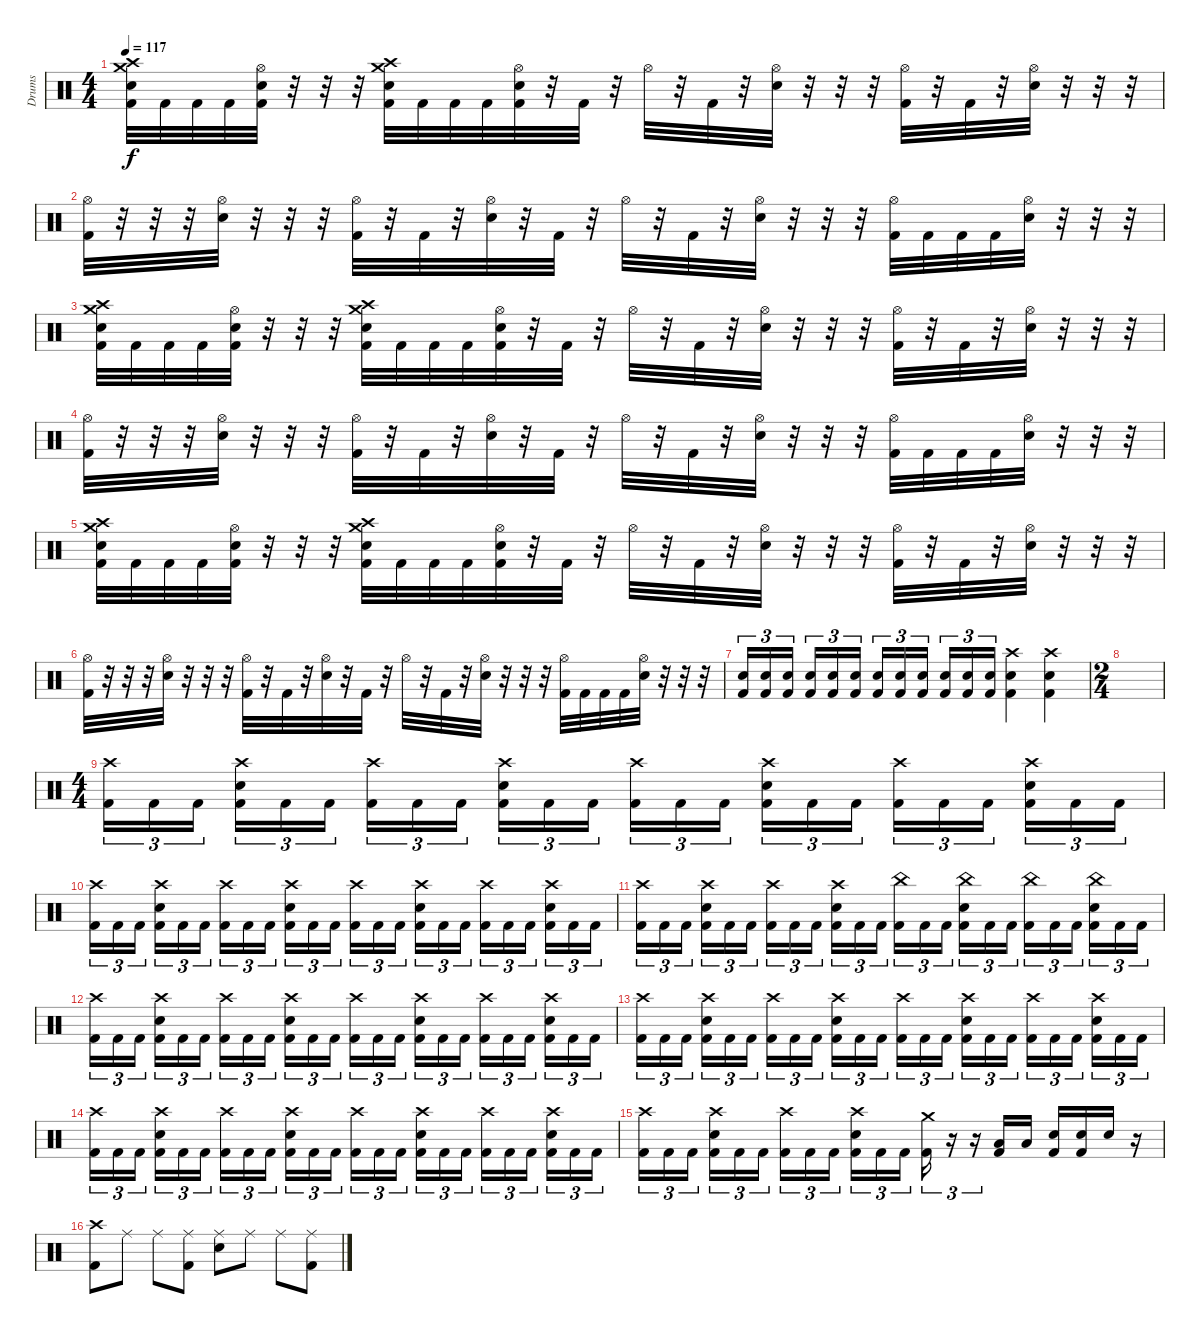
\track ("Drums" "Drums") {instrument percussion}
\staff {score}
\articulation defaults
\ts (4 4)
\tempo 117
\clef neutral
\ks c
("Crash medium (hit)" "Crash high (hit)" "Electric Snare (hit)" "Kick (hit) 2").32{dy f} "Kick (hit) 2".32 "Kick (hit) 2".32 "Kick (hit) 2".32 ("Hi-Hat (open)" "Electric Snare (hit)" "Kick (hit) 2").32 r.32 r.32 r.32 ("Crash medium (hit)" "Crash high (hit)" "Electric Snare (hit)" "Kick (hit) 2").32 "Kick (hit) 2".32 "Kick (hit) 2".32 "Kick (hit) 2".32 ("Hi-Hat (open)" "Electric Snare (hit)" "Kick (hit) 2").32 r.32 "Kick (hit) 2".32 r.32 "Hi-Hat (open)".32 r.32 "Kick (hit) 2".32 r.32 ("Hi-Hat (open)" "Electric Snare (hit)").32 r.32 r.32 r.32 ("Hi-Hat (open)" "Kick (hit) 2").32 r.32 "Kick (hit) 2".32 r.32 ("Hi-Hat (open)" "Electric Snare (hit)").32 r.32 r.32 r.32 |
("Hi-Hat (open)" "Kick (hit) 2").32 r.32 r.32 r.32 ("Hi-Hat (open)" "Electric Snare (hit)").32 r.32 r.32 r.32 ("Hi-Hat (open)" "Kick (hit) 2").32 r.32 "Kick (hit) 2".32 r.32 ("Hi-Hat (open)" "Electric Snare (hit)").32 r.32 "Kick (hit) 2".32 r.32 "Hi-Hat (open)".32 r.32 "Kick (hit) 2".32 r.32 ("Hi-Hat (open)" "Electric Snare (hit)").32 r.32 r.32 r.32 ("Hi-Hat (open)" "Kick (hit) 2").32 "Kick (hit) 2".32 "Kick (hit) 2".32 "Kick (hit) 2".32 ("Hi-Hat (open)" "Electric Snare (hit)").32 r.32 r.32 r.32 |
("Crash medium (hit)" "Crash high (hit)" "Electric Snare (hit)" "Kick (hit) 2").32 "Kick (hit) 2".32 "Kick (hit) 2".32 "Kick (hit) 2".32 ("Hi-Hat (open)" "Electric Snare (hit)" "Kick (hit) 2").32 r.32 r.32 r.32 ("Crash medium (hit)" "Crash high (hit)" "Electric Snare (hit)" "Kick (hit) 2").32 "Kick (hit) 2".32 "Kick (hit) 2".32 "Kick (hit) 2".32 ("Hi-Hat (open)" "Electric Snare (hit)" "Kick (hit) 2").32 r.32 "Kick (hit) 2".32 r.32 "Hi-Hat (open)".32 r.32 "Kick (hit) 2".32 r.32 ("Hi-Hat (open)" "Electric Snare (hit)").32 r.32 r.32 r.32 ("Hi-Hat (open)" "Kick (hit) 2").32 r.32 "Kick (hit) 2".32 r.32 ("Hi-Hat (open)" "Electric Snare (hit)").32 r.32 r.32 r.32 |
("Hi-Hat (open)" "Kick (hit) 2").32 r.32 r.32 r.32 ("Hi-Hat (open)" "Electric Snare (hit)").32 r.32 r.32 r.32 ("Hi-Hat (open)" "Kick (hit) 2").32 r.32 "Kick (hit) 2".32 r.32 ("Hi-Hat (open)" "Electric Snare (hit)").32 r.32 "Kick (hit) 2".32 r.32 "Hi-Hat (open)".32 r.32 "Kick (hit) 2".32 r.32 ("Hi-Hat (open)" "Electric Snare (hit)").32 r.32 r.32 r.32 ("Hi-Hat (open)" "Kick (hit) 2").32 "Kick (hit) 2".32 "Kick (hit) 2".32 "Kick (hit) 2".32 ("Hi-Hat (open)" "Electric Snare (hit)").32 r.32 r.32 r.32 |
("Crash medium (hit)" "Crash high (hit)" "Electric Snare (hit)" "Kick (hit) 2").32 "Kick (hit) 2".32 "Kick (hit) 2".32 "Kick (hit) 2".32 ("Hi-Hat (open)" "Electric Snare (hit)" "Kick (hit) 2").32 r.32 r.32 r.32 ("Crash medium (hit)" "Crash high (hit)" "Electric Snare (hit)" "Kick (hit) 2").32 "Kick (hit) 2".32 "Kick (hit) 2".32 "Kick (hit) 2".32 ("Hi-Hat (open)" "Electric Snare (hit)" "Kick (hit) 2").32 r.32 "Kick (hit) 2".32 r.32 "Hi-Hat (open)".32 r.32 "Kick (hit) 2".32 r.32 ("Hi-Hat (open)" "Electric Snare (hit)").32 r.32 r.32 r.32 ("Hi-Hat (open)" "Kick (hit) 2").32 r.32 "Kick (hit) 2".32 r.32 ("Hi-Hat (open)" "Electric Snare (hit)").32 r.32 r.32 r.32 |
("Hi-Hat (open)" "Kick (hit) 2").32 r.32 r.32 r.32 ("Hi-Hat (open)" "Electric Snare (hit)").32 r.32 r.32 r.32 ("Hi-Hat (open)" "Kick (hit) 2").32 r.32 "Kick (hit) 2".32 r.32 ("Hi-Hat (open)" "Electric Snare (hit)").32 r.32 "Kick (hit) 2".32 r.32 "Hi-Hat (open)".32 r.32 "Kick (hit) 2".32 r.32 ("Hi-Hat (open)" "Electric Snare (hit)").32 r.32 r.32 r.32 ("Hi-Hat (open)" "Kick (hit) 2").32 "Kick (hit) 2".32 "Kick (hit) 2".32 "Kick (hit) 2".32 ("Hi-Hat (open)" "Electric Snare (hit)").32 r.32 r.32 r.32 |
("Electric Snare (hit)" "Kick (hit) 2").16{tu (3 2)} ("Electric Snare (hit)" "Kick (hit) 2").16{tu (3 2)} ("Electric Snare (hit)" "Kick (hit) 2").16{tu (3 2) beam splitsecondary} ("Electric Snare (hit)" "Kick (hit) 2").16{tu (3 2)} ("Electric Snare (hit)" "Kick (hit) 2").16{tu (3 2)} ("Electric Snare (hit)" "Kick (hit) 2").16{tu (3 2)} ("Electric Snare (hit)" "Kick (hit) 2").16{tu (3 2)} ("Electric Snare (hit)" "Kick (hit) 2").16{tu (3 2)} ("Electric Snare (hit)" "Kick (hit) 2").16{tu (3 2) beam splitsecondary} ("Electric Snare (hit)" "Kick (hit) 2").16{tu (3 2)} ("Electric Snare (hit)" "Kick (hit) 2").16{tu (3 2)} ("Electric Snare (hit)" "Kick (hit) 2").16{tu (3 2)} ("Crash high (hit)" "Electric Snare (hit)" "Kick (hit) 2").4 ("Crash high (hit)" "Electric Snare (hit)" "Kick (hit) 2").4 |
\ts (2 4)
|
\ts (4 4)
("Crash high (hit)" "Kick (hit) 2").16{tu (3 2)} "Kick (hit) 2".16{tu (3 2)} "Kick (hit) 2".16{tu (3 2) beam splitsecondary} ("Crash high (hit)" "Electric Snare (hit)" "Kick (hit) 2").16{tu (3 2)} "Kick (hit) 2".16{tu (3 2)} "Kick (hit) 2".16{tu (3 2)} ("Crash high (hit)" "Kick (hit) 2").16{tu (3 2)} "Kick (hit) 2".16{tu (3 2)} "Kick (hit) 2".16{tu (3 2) beam splitsecondary} ("Crash high (hit)" "Electric Snare (hit)" "Kick (hit) 2").16{tu (3 2)} "Kick (hit) 2".16{tu (3 2)} "Kick (hit) 2".16{tu (3 2)} ("Crash high (hit)" "Kick (hit) 2").16{tu (3 2)} "Kick (hit) 2".16{tu (3 2)} "Kick (hit) 2".16{tu (3 2) beam splitsecondary} ("Crash high (hit)" "Electric Snare (hit)" "Kick (hit) 2").16{tu (3 2)} "Kick (hit) 2".16{tu (3 2)} "Kick (hit) 2".16{tu (3 2)} ("Crash high (hit)" "Kick (hit) 2").16{tu (3 2)} "Kick (hit) 2".16{tu (3 2)} "Kick (hit) 2".16{tu (3 2) beam splitsecondary} ("Crash high (hit)" "Electric Snare (hit)" "Kick (hit) 2").16{tu (3 2)} "Kick (hit) 2".16{tu (3 2)} "Kick (hit) 2".16{tu (3 2)} |
("Crash high (hit)" "Kick (hit) 2").16{tu (3 2)} "Kick (hit) 2".16{tu (3 2)} "Kick (hit) 2".16{tu (3 2) beam splitsecondary} ("Crash high (hit)" "Electric Snare (hit)" "Kick (hit) 2").16{tu (3 2)} "Kick (hit) 2".16{tu (3 2)} "Kick (hit) 2".16{tu (3 2)} ("Crash high (hit)" "Kick (hit) 2").16{tu (3 2)} "Kick (hit) 2".16{tu (3 2)} "Kick (hit) 2".16{tu (3 2) beam splitsecondary} ("Crash high (hit)" "Electric Snare (hit)" "Kick (hit) 2").16{tu (3 2)} "Kick (hit) 2".16{tu (3 2)} "Kick (hit) 2".16{tu (3 2)} ("Crash high (hit)" "Kick (hit) 2").16{tu (3 2)} "Kick (hit) 2".16{tu (3 2)} "Kick (hit) 2".16{tu (3 2) beam splitsecondary} ("Crash high (hit)" "Electric Snare (hit)" "Kick (hit) 2").16{tu (3 2)} "Kick (hit) 2".16{tu (3 2)} "Kick (hit) 2".16{tu (3 2)} ("Crash high (hit)" "Kick (hit) 2").16{tu (3 2)} "Kick (hit) 2".16{tu (3 2)} "Kick (hit) 2".16{tu (3 2) beam splitsecondary} ("Crash high (hit)" "Electric Snare (hit)" "Kick (hit) 2").16{tu (3 2)} "Kick (hit) 2".16{tu (3 2)} "Kick (hit) 2".16{tu (3 2)} |
("Crash high (hit)" "Kick (hit) 2").16{tu (3 2)} "Kick (hit) 2".16{tu (3 2)} "Kick (hit) 2".16{tu (3 2) beam splitsecondary} ("Crash high (hit)" "Electric Snare (hit)" "Kick (hit) 2").16{tu (3 2)} "Kick (hit) 2".16{tu (3 2)} "Kick (hit) 2".16{tu (3 2)} ("Crash high (hit)" "Kick (hit) 2").16{tu (3 2)} "Kick (hit) 2".16{tu (3 2)} "Kick (hit) 2".16{tu (3 2) beam splitsecondary} ("Crash high (hit)" "Electric Snare (hit)" "Kick (hit) 2").16{tu (3 2)} "Kick (hit) 2".16{tu (3 2)} "Kick (hit) 2".16{tu (3 2)} ("China (hit)" "Kick (hit) 2").16{tu (3 2)} "Kick (hit) 2".16{tu (3 2)} "Kick (hit) 2".16{tu (3 2) beam splitsecondary} ("China (hit)" "Electric Snare (hit)" "Kick (hit) 2").16{tu (3 2)} "Kick (hit) 2".16{tu (3 2)} "Kick (hit) 2".16{tu (3 2)} ("China (hit)" "Kick (hit) 2").16{tu (3 2)} "Kick (hit) 2".16{tu (3 2)} "Kick (hit) 2".16{tu (3 2) beam splitsecondary} ("China (hit)" "Electric Snare (hit)" "Kick (hit) 2").16{tu (3 2)} "Kick (hit) 2".16{tu (3 2)} "Kick (hit) 2".16{tu (3 2)} |
("Crash high (hit)" "Kick (hit) 2").16{tu (3 2)} "Kick (hit) 2".16{tu (3 2)} "Kick (hit) 2".16{tu (3 2) beam splitsecondary} ("Crash high (hit)" "Electric Snare (hit)" "Kick (hit) 2").16{tu (3 2)} "Kick (hit) 2".16{tu (3 2)} "Kick (hit) 2".16{tu (3 2)} ("Crash high (hit)" "Kick (hit) 2").16{tu (3 2)} "Kick (hit) 2".16{tu (3 2)} "Kick (hit) 2".16{tu (3 2) beam splitsecondary} ("Crash high (hit)" "Electric Snare (hit)" "Kick (hit) 2").16{tu (3 2)} "Kick (hit) 2".16{tu (3 2)} "Kick (hit) 2".16{tu (3 2)} ("Crash high (hit)" "Kick (hit) 2").16{tu (3 2)} "Kick (hit) 2".16{tu (3 2)} "Kick (hit) 2".16{tu (3 2) beam splitsecondary} ("Crash high (hit)" "Electric Snare (hit)" "Kick (hit) 2").16{tu (3 2)} "Kick (hit) 2".16{tu (3 2)} "Kick (hit) 2".16{tu (3 2)} ("Crash high (hit)" "Kick (hit) 2").16{tu (3 2)} "Kick (hit) 2".16{tu (3 2)} "Kick (hit) 2".16{tu (3 2) beam splitsecondary} ("Crash high (hit)" "Electric Snare (hit)" "Kick (hit) 2").16{tu (3 2)} "Kick (hit) 2".16{tu (3 2)} "Kick (hit) 2".16{tu (3 2)} |
("Crash high (hit)" "Kick (hit) 2").16{tu (3 2)} "Kick (hit) 2".16{tu (3 2)} "Kick (hit) 2".16{tu (3 2) beam splitsecondary} ("Crash high (hit)" "Electric Snare (hit)" "Kick (hit) 2").16{tu (3 2)} "Kick (hit) 2".16{tu (3 2)} "Kick (hit) 2".16{tu (3 2)} ("Crash high (hit)" "Kick (hit) 2").16{tu (3 2)} "Kick (hit) 2".16{tu (3 2)} "Kick (hit) 2".16{tu (3 2) beam splitsecondary} ("Crash high (hit)" "Electric Snare (hit)" "Kick (hit) 2").16{tu (3 2)} "Kick (hit) 2".16{tu (3 2)} "Kick (hit) 2".16{tu (3 2)} ("Crash high (hit)" "Kick (hit) 2").16{tu (3 2)} "Kick (hit) 2".16{tu (3 2)} "Kick (hit) 2".16{tu (3 2) beam splitsecondary} ("Crash high (hit)" "Electric Snare (hit)" "Kick (hit) 2").16{tu (3 2)} "Kick (hit) 2".16{tu (3 2)} "Kick (hit) 2".16{tu (3 2)} ("Crash high (hit)" "Kick (hit) 2").16{tu (3 2)} "Kick (hit) 2".16{tu (3 2)} "Kick (hit) 2".16{tu (3 2) beam splitsecondary} ("Crash high (hit)" "Electric Snare (hit)" "Kick (hit) 2").16{tu (3 2)} "Kick (hit) 2".16{tu (3 2)} "Kick (hit) 2".16{tu (3 2)} |
("Crash high (hit)" "Kick (hit) 2").16{tu (3 2)} "Kick (hit) 2".16{tu (3 2)} "Kick (hit) 2".16{tu (3 2) beam splitsecondary} ("Crash high (hit)" "Electric Snare (hit)" "Kick (hit) 2").16{tu (3 2)} "Kick (hit) 2".16{tu (3 2)} "Kick (hit) 2".16{tu (3 2)} ("Crash high (hit)" "Kick (hit) 2").16{tu (3 2)} "Kick (hit) 2".16{tu (3 2)} "Kick (hit) 2".16{tu (3 2) beam splitsecondary} ("Crash high (hit)" "Electric Snare (hit)" "Kick (hit) 2").16{tu (3 2)} "Kick (hit) 2".16{tu (3 2)} "Kick (hit) 2".16{tu (3 2)} ("Crash high (hit)" "Kick (hit) 2").16{tu (3 2)} "Kick (hit) 2".16{tu (3 2)} "Kick (hit) 2".16{tu (3 2) beam splitsecondary} ("Crash high (hit)" "Electric Snare (hit)" "Kick (hit) 2").16{tu (3 2)} "Kick (hit) 2".16{tu (3 2)} "Kick (hit) 2".16{tu (3 2)} ("Crash high (hit)" "Kick (hit) 2").16{tu (3 2)} "Kick (hit) 2".16{tu (3 2)} "Kick (hit) 2".16{tu (3 2) beam splitsecondary} ("Crash high (hit)" "Electric Snare (hit)" "Kick (hit) 2").16{tu (3 2)} "Kick (hit) 2".16{tu (3 2)} "Kick (hit) 2".16{tu (3 2)} |
("Crash high (hit)" "Kick (hit) 2").16{tu (3 2)} "Kick (hit) 2".16{tu (3 2)} "Kick (hit) 2".16{tu (3 2) beam splitsecondary} ("Crash high (hit)" "Electric Snare (hit)" "Kick (hit) 2").16{tu (3 2)} "Kick (hit) 2".16{tu (3 2)} "Kick (hit) 2".16{tu (3 2)} ("Crash high (hit)" "Kick (hit) 2").16{tu (3 2)} "Kick (hit) 2".16{tu (3 2)} "Kick (hit) 2".16{tu (3 2) beam splitsecondary} ("Crash high (hit)" "Electric Snare (hit)" "Kick (hit) 2").16{tu (3 2)} "Kick (hit) 2".16{tu (3 2)} "Kick (hit) 2".16{tu (3 2)} ("Crash medium (hit)" "Kick (hit) 2").16{tu (3 2)} r.16{tu (3 2)} r.16{tu (3 2)} ("Low Tom (hit)" "Kick (hit) 2").16 "Low Tom (hit)".16 ("Electric Snare (hit)" "Kick (hit) 2").16 ("Electric Snare (hit)" "Kick (hit) 2").16 "Electric Snare (hit)".16 r.16 |
("Crash high (hit)" "Kick (hit) 2").8 "Ride (middle)".8 "Ride (middle)".8 ("Ride (middle)" "Kick (hit) 2").8 ("Ride (middle)" "Electric Snare (hit)").8 "Ride (middle)".8 "Ride (middle)".8 ("Ride (middle)" "Kick (hit) 2").8
